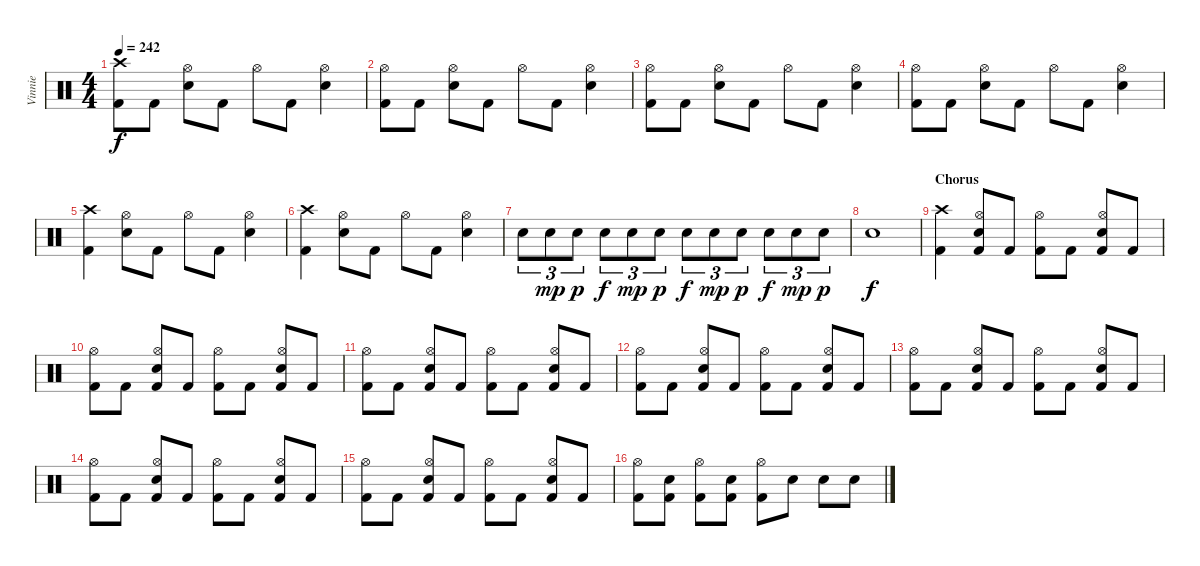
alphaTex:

\track ("Vinnie" "Vinnie") {instrument percussion}
\staff {score}
\articulation defaults
\ts (4 4)
\tempo 242
\clef neutral
\ks c
("Crash high (hit)" "Kick (hit) 2").8{dy f} "Kick (hit) 2".8 ("Hi-Hat (open)" "Snare (hit) 2").8 "Kick (hit) 2".8 "Hi-Hat (open)".8 "Kick (hit) 2".8 ("Hi-Hat (open)" "Snare (hit) 2").4 |
("Hi-Hat (open)" "Kick (hit) 2").8 "Kick (hit) 2".8 ("Hi-Hat (open)" "Snare (hit) 2").8 "Kick (hit) 2".8 "Hi-Hat (open)".8 "Kick (hit) 2".8 ("Hi-Hat (open)" "Snare (hit) 2").4 |
("Hi-Hat (open)" "Kick (hit) 2").8 "Kick (hit) 2".8 ("Hi-Hat (open)" "Snare (hit) 2").8 "Kick (hit) 2".8 "Hi-Hat (open)".8 "Kick (hit) 2".8 ("Hi-Hat (open)" "Snare (hit) 2").4 |
("Hi-Hat (open)" "Kick (hit) 2").8 "Kick (hit) 2".8 ("Hi-Hat (open)" "Snare (hit) 2").8 "Kick (hit) 2".8 "Hi-Hat (open)".8 "Kick (hit) 2".8 ("Hi-Hat (open)" "Snare (hit) 2").4 |
("Crash high (hit)" "Kick (hit) 2").4 ("Hi-Hat (open)" "Snare (hit) 2").8 "Kick (hit) 2".8 "Hi-Hat (open)".8 "Kick (hit) 2".8 ("Hi-Hat (open)" "Snare (hit) 2").4 |
("Crash high (hit)" "Kick (hit) 2").4 ("Hi-Hat (open)" "Snare (hit) 2").8 "Kick (hit) 2".8 "Hi-Hat (open)".8 "Kick (hit) 2".8 ("Hi-Hat (open)" "Snare (hit) 2").4 |
"Snare (hit) 2".8{tu (3 2)} "Snare (hit) 2".8{tu (3 2) dy mp} "Snare (hit) 2".8{tu (3 2) dy p} "Snare (hit) 2".8{tu (3 2) dy f} "Snare (hit) 2".8{tu (3 2) dy mp} "Snare (hit) 2".8{tu (3 2) dy p} "Snare (hit) 2".8{tu (3 2) dy f} "Snare (hit) 2".8{tu (3 2) dy mp} "Snare (hit) 2".8{tu (3 2) dy p} "Snare (hit) 2".8{tu (3 2) dy f} "Snare (hit) 2".8{tu (3 2) dy mp} "Snare (hit) 2".8{tu (3 2) dy p} |
"Snare (hit) 2".1{dy f} |
\section ("" "Chorus")
("Crash high (hit)" "Kick (hit) 2").4 ("Hi-Hat (open)" "Snare (hit) 2" "Kick (hit) 2").8 "Kick (hit) 2".8 ("Hi-Hat (open)" "Kick (hit) 2").8 "Kick (hit) 2".8 ("Hi-Hat (open)" "Snare (hit) 2" "Kick (hit) 2").8 "Kick (hit) 2".8 |
("Hi-Hat (open)" "Kick (hit) 2").8 "Kick (hit) 2".8 ("Hi-Hat (open)" "Snare (hit) 2" "Kick (hit) 2").8 "Kick (hit) 2".8 ("Hi-Hat (open)" "Kick (hit) 2").8 "Kick (hit) 2".8 ("Hi-Hat (open)" "Snare (hit) 2" "Kick (hit) 2").8 "Kick (hit) 2".8 |
("Hi-Hat (open)" "Kick (hit) 2").8 "Kick (hit) 2".8 ("Hi-Hat (open)" "Snare (hit) 2" "Kick (hit) 2").8 "Kick (hit) 2".8 ("Hi-Hat (open)" "Kick (hit) 2").8 "Kick (hit) 2".8 ("Hi-Hat (open)" "Snare (hit) 2" "Kick (hit) 2").8 "Kick (hit) 2".8 |
("Hi-Hat (open)" "Kick (hit) 2").8 "Kick (hit) 2".8 ("Hi-Hat (open)" "Snare (hit) 2" "Kick (hit) 2").8 "Kick (hit) 2".8 ("Hi-Hat (open)" "Kick (hit) 2").8 "Kick (hit) 2".8 ("Hi-Hat (open)" "Snare (hit) 2" "Kick (hit) 2").8 "Kick (hit) 2".8 |
("Hi-Hat (open)" "Kick (hit) 2").8 "Kick (hit) 2".8 ("Hi-Hat (open)" "Snare (hit) 2" "Kick (hit) 2").8 "Kick (hit) 2".8 ("Hi-Hat (open)" "Kick (hit) 2").8 "Kick (hit) 2".8 ("Hi-Hat (open)" "Snare (hit) 2" "Kick (hit) 2").8 "Kick (hit) 2".8 |
("Hi-Hat (open)" "Kick (hit) 2").8 "Kick (hit) 2".8 ("Hi-Hat (open)" "Snare (hit) 2" "Kick (hit) 2").8 "Kick (hit) 2".8 ("Hi-Hat (open)" "Kick (hit) 2").8 "Kick (hit) 2".8 ("Hi-Hat (open)" "Snare (hit) 2" "Kick (hit) 2").8 "Kick (hit) 2".8 |
("Hi-Hat (open)" "Kick (hit) 2").8 "Kick (hit) 2".8 ("Hi-Hat (open)" "Snare (hit) 2" "Kick (hit) 2").8 "Kick (hit) 2".8 ("Hi-Hat (open)" "Kick (hit) 2").8 "Kick (hit) 2".8 ("Hi-Hat (open)" "Snare (hit) 2" "Kick (hit) 2").8 "Kick (hit) 2".8 |
("Hi-Hat (open)" "Kick (hit) 2").8 ("Snare (hit) 2" "Kick (hit) 2").8 ("Hi-Hat (open)" "Kick (hit) 2").8 ("Snare (hit) 2" "Kick (hit) 2").8 ("Hi-Hat (open)" "Kick (hit) 2").8 "Snare (hit) 2".8 "Snare (hit) 2".8 "Snare (hit) 2".8
